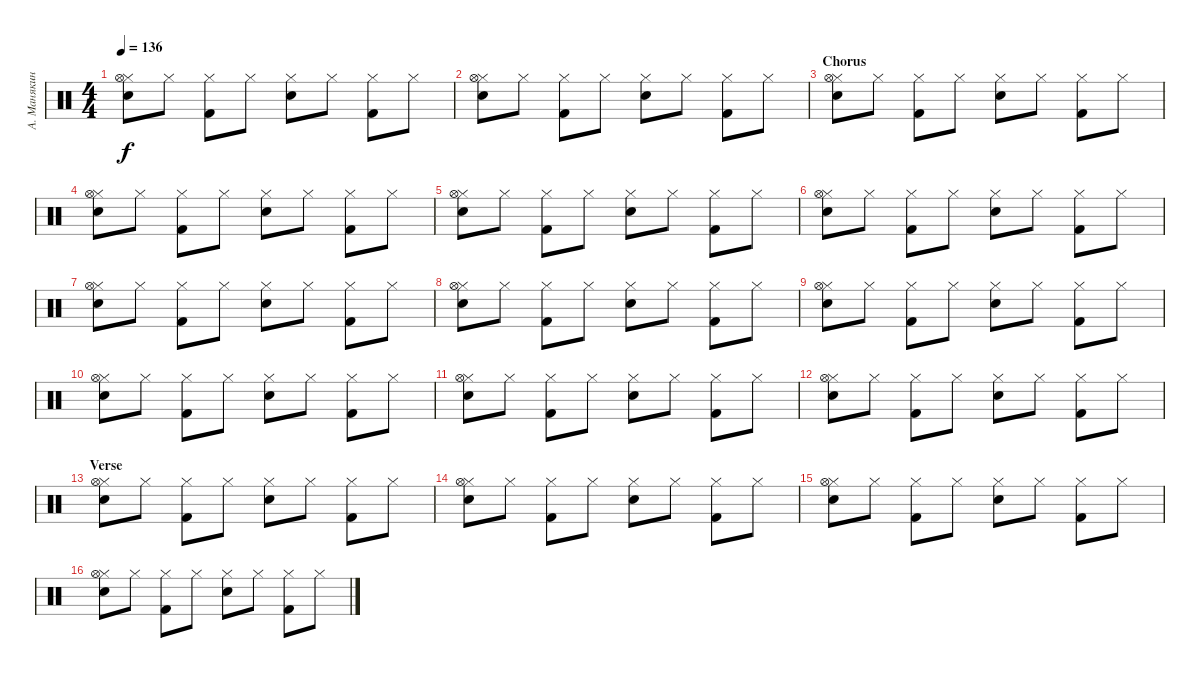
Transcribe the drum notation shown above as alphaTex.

\track ("А. Манякин" "А. Манякин") {instrument percussion}
\staff {score}
\articulation defaults
\ts (4 4)
\tempo 136
\clef neutral
\ks c
("Hi-Hat (closed)" "Snare (hit) 2" "Hi-Hat (open)").8{dy f} "Hi-Hat (closed)".8 ("Hi-Hat (closed)" "Kick (hit) 2").8 "Hi-Hat (closed)".8 ("Hi-Hat (closed)" "Snare (hit) 2").8 "Hi-Hat (closed)".8 ("Hi-Hat (closed)" "Kick (hit) 2").8 "Hi-Hat (closed)".8 |
("Hi-Hat (closed)" "Snare (hit) 2" "Hi-Hat (open)").8 "Hi-Hat (closed)".8 ("Hi-Hat (closed)" "Kick (hit) 2").8 "Hi-Hat (closed)".8 ("Hi-Hat (closed)" "Snare (hit) 2").8 "Hi-Hat (closed)".8 ("Hi-Hat (closed)" "Kick (hit) 2").8 "Hi-Hat (closed)".8 |
\section ("" "Chorus")
("Hi-Hat (closed)" "Snare (hit) 2" "Hi-Hat (open)").8 "Hi-Hat (closed)".8 ("Hi-Hat (closed)" "Kick (hit) 2").8 "Hi-Hat (closed)".8 ("Hi-Hat (closed)" "Snare (hit) 2").8 "Hi-Hat (closed)".8 ("Hi-Hat (closed)" "Kick (hit) 2").8 "Hi-Hat (closed)".8 |
("Hi-Hat (closed)" "Snare (hit) 2" "Hi-Hat (open)").8 "Hi-Hat (closed)".8 ("Hi-Hat (closed)" "Kick (hit) 2").8 "Hi-Hat (closed)".8 ("Hi-Hat (closed)" "Snare (hit) 2").8 "Hi-Hat (closed)".8 ("Hi-Hat (closed)" "Kick (hit) 2").8 "Hi-Hat (closed)".8 |
("Hi-Hat (closed)" "Snare (hit) 2" "Hi-Hat (open)").8 "Hi-Hat (closed)".8 ("Hi-Hat (closed)" "Kick (hit) 2").8 "Hi-Hat (closed)".8 ("Hi-Hat (closed)" "Snare (hit) 2").8 "Hi-Hat (closed)".8 ("Hi-Hat (closed)" "Kick (hit) 2").8 "Hi-Hat (closed)".8 |
("Hi-Hat (closed)" "Snare (hit) 2" "Hi-Hat (open)").8 "Hi-Hat (closed)".8 ("Hi-Hat (closed)" "Kick (hit) 2").8 "Hi-Hat (closed)".8 ("Hi-Hat (closed)" "Snare (hit) 2").8 "Hi-Hat (closed)".8 ("Hi-Hat (closed)" "Kick (hit) 2").8 "Hi-Hat (closed)".8 |
("Hi-Hat (closed)" "Snare (hit) 2" "Hi-Hat (open)").8 "Hi-Hat (closed)".8 ("Hi-Hat (closed)" "Kick (hit) 2").8 "Hi-Hat (closed)".8 ("Hi-Hat (closed)" "Snare (hit) 2").8 "Hi-Hat (closed)".8 ("Hi-Hat (closed)" "Kick (hit) 2").8 "Hi-Hat (closed)".8 |
("Hi-Hat (closed)" "Snare (hit) 2" "Hi-Hat (open)").8 "Hi-Hat (closed)".8 ("Hi-Hat (closed)" "Kick (hit) 2").8 "Hi-Hat (closed)".8 ("Hi-Hat (closed)" "Snare (hit) 2").8 "Hi-Hat (closed)".8 ("Hi-Hat (closed)" "Kick (hit) 2").8 "Hi-Hat (closed)".8 |
("Hi-Hat (closed)" "Snare (hit) 2" "Hi-Hat (open)").8 "Hi-Hat (closed)".8 ("Hi-Hat (closed)" "Kick (hit) 2").8 "Hi-Hat (closed)".8 ("Hi-Hat (closed)" "Snare (hit) 2").8 "Hi-Hat (closed)".8 ("Hi-Hat (closed)" "Kick (hit) 2").8 "Hi-Hat (closed)".8 |
("Hi-Hat (closed)" "Snare (hit) 2" "Hi-Hat (open)").8 "Hi-Hat (closed)".8 ("Hi-Hat (closed)" "Kick (hit) 2").8 "Hi-Hat (closed)".8 ("Hi-Hat (closed)" "Snare (hit) 2").8 "Hi-Hat (closed)".8 ("Hi-Hat (closed)" "Kick (hit) 2").8 "Hi-Hat (closed)".8 |
("Hi-Hat (closed)" "Snare (hit) 2" "Hi-Hat (open)").8 "Hi-Hat (closed)".8 ("Hi-Hat (closed)" "Kick (hit) 2").8 "Hi-Hat (closed)".8 ("Hi-Hat (closed)" "Snare (hit) 2").8 "Hi-Hat (closed)".8 ("Hi-Hat (closed)" "Kick (hit) 2").8 "Hi-Hat (closed)".8 |
("Hi-Hat (closed)" "Snare (hit) 2" "Hi-Hat (open)").8 "Hi-Hat (closed)".8 ("Hi-Hat (closed)" "Kick (hit) 2").8 "Hi-Hat (closed)".8 ("Hi-Hat (closed)" "Snare (hit) 2").8 "Hi-Hat (closed)".8 ("Hi-Hat (closed)" "Kick (hit) 2").8 "Hi-Hat (closed)".8 |
\section ("" "Verse")
("Hi-Hat (closed)" "Snare (hit) 2" "Hi-Hat (open)").8 "Hi-Hat (closed)".8 ("Hi-Hat (closed)" "Kick (hit) 2").8 "Hi-Hat (closed)".8 ("Hi-Hat (closed)" "Snare (hit) 2").8 "Hi-Hat (closed)".8 ("Hi-Hat (closed)" "Kick (hit) 2").8 "Hi-Hat (closed)".8 |
("Hi-Hat (closed)" "Snare (hit) 2" "Hi-Hat (open)").8 "Hi-Hat (closed)".8 ("Hi-Hat (closed)" "Kick (hit) 2").8 "Hi-Hat (closed)".8 ("Hi-Hat (closed)" "Snare (hit) 2").8 "Hi-Hat (closed)".8 ("Hi-Hat (closed)" "Kick (hit) 2").8 "Hi-Hat (closed)".8 |
("Hi-Hat (closed)" "Snare (hit) 2" "Hi-Hat (open)").8 "Hi-Hat (closed)".8 ("Hi-Hat (closed)" "Kick (hit) 2").8 "Hi-Hat (closed)".8 ("Hi-Hat (closed)" "Snare (hit) 2").8 "Hi-Hat (closed)".8 ("Hi-Hat (closed)" "Kick (hit) 2").8 "Hi-Hat (closed)".8 |
("Hi-Hat (closed)" "Snare (hit) 2" "Hi-Hat (open)").8 "Hi-Hat (closed)".8 ("Hi-Hat (closed)" "Kick (hit) 2").8 "Hi-Hat (closed)".8 ("Hi-Hat (closed)" "Snare (hit) 2").8 "Hi-Hat (closed)".8 ("Hi-Hat (closed)" "Kick (hit) 2").8 "Hi-Hat (closed)".8
